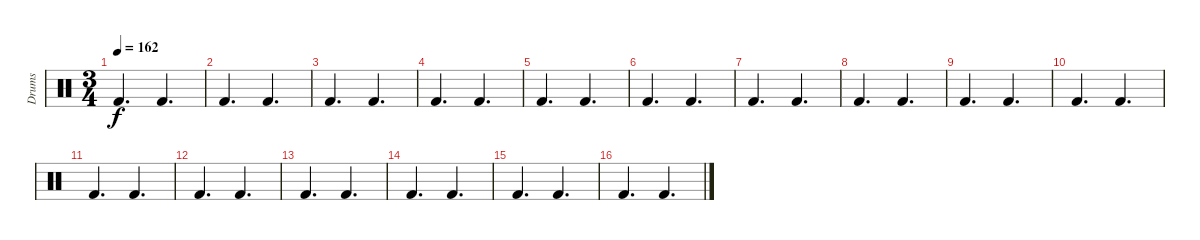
\track ("Drums" "Drums") {instrument percussion}
\staff {score}
\articulation defaults
\ts (3 4)
\tempo 162
\clef neutral
\ks c "Kick (hit) 2".4{d dy f} "Kick (hit) 2".4{d}
|
"Kick (hit) 2".4{d} "Kick (hit) 2".4{d} |
"Kick (hit) 2".4{d} "Kick (hit) 2".4{d} |
"Kick (hit) 2".4{d} "Kick (hit) 2".4{d} |
"Kick (hit) 2".4{d} "Kick (hit) 2".4{d} |
"Kick (hit) 2".4{d} "Kick (hit) 2".4{d} |
"Kick (hit) 2".4{d} "Kick (hit) 2".4{d} |
"Kick (hit) 2".4{d} "Kick (hit) 2".4{d} |
"Kick (hit) 2".4{d} "Kick (hit) 2".4{d} |
"Kick (hit) 2".4{d} "Kick (hit) 2".4{d} |
"Kick (hit) 2".4{d} "Kick (hit) 2".4{d} |
"Kick (hit) 2".4{d} "Kick (hit) 2".4{d} |
"Kick (hit) 2".4{d} "Kick (hit) 2".4{d} |
"Kick (hit) 2".4{d} "Kick (hit) 2".4{d} |
"Kick (hit) 2".4{d} "Kick (hit) 2".4{d} |
"Kick (hit) 2".4{d} "Kick (hit) 2".4{d}
